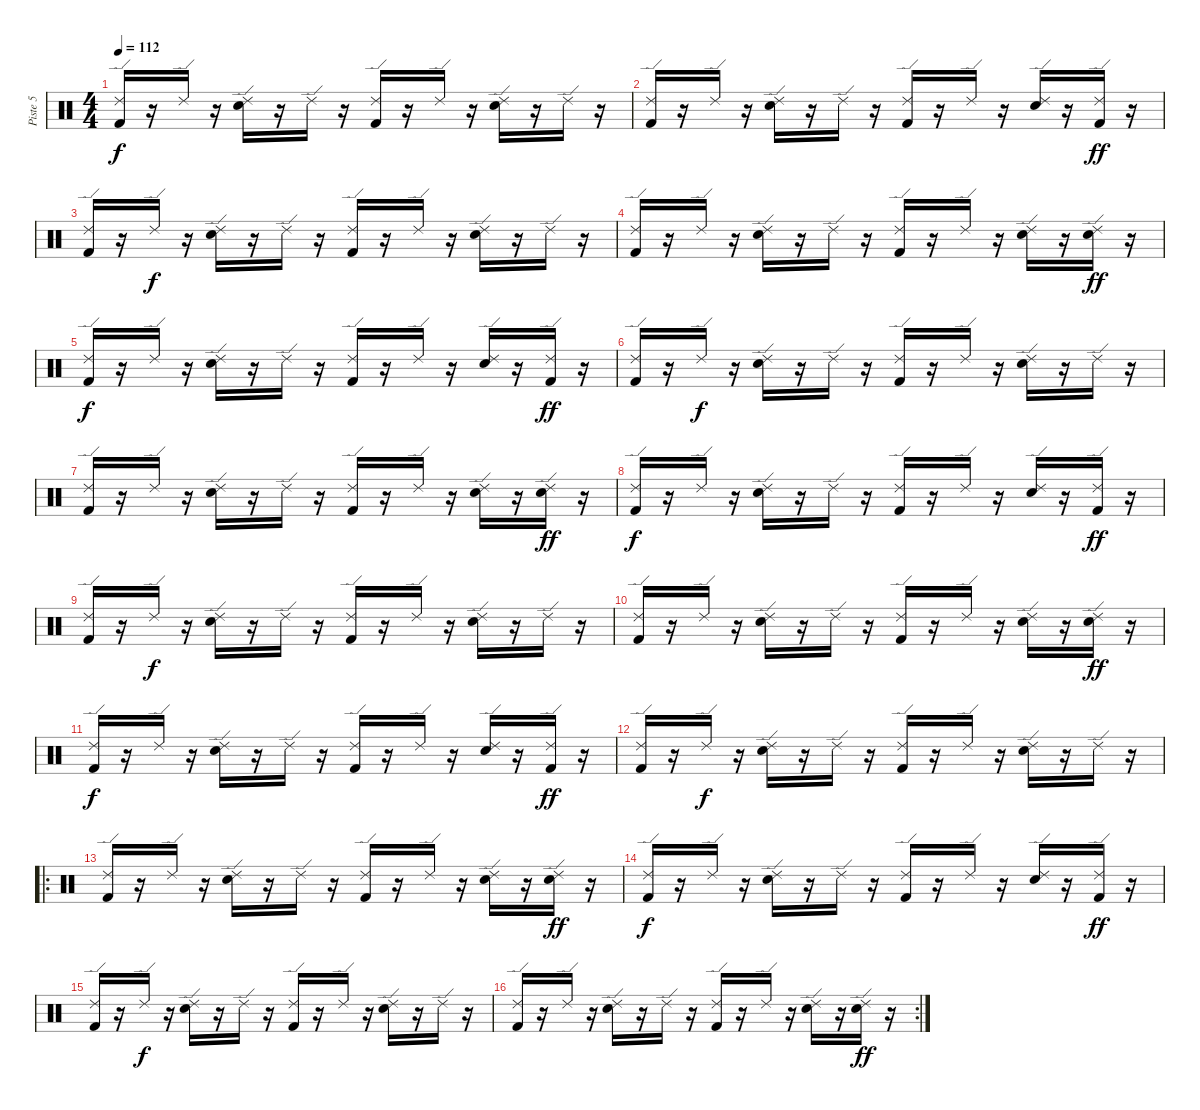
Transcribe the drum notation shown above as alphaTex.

\track ("Piste 5" "Piste 5") {instrument percussion}
\staff {score}
\articulation defaults
\ts (4 4)
\tempo 112
\clef neutral
\ks c
("Ride (edge) 2" "Kick (hit) 2").16{dy f} r.16 "Ride (edge) 2".16 r.16 ("Ride (edge) 2" "Electric Snare (hit)").16 r.16 "Ride (edge) 2".16 r.16 ("Ride (edge) 2" "Kick (hit) 2").16 r.16 "Ride (edge) 2".16 r.16 ("Ride (edge) 2" "Electric Snare (hit)").16 r.16 "Ride (edge) 2".16 r.16 |
("Ride (edge) 2" "Kick (hit) 2").16 r.16 "Ride (edge) 2".16 r.16 ("Ride (edge) 2" "Electric Snare (hit)").16 r.16 "Ride (edge) 2".16 r.16 ("Ride (edge) 2" "Kick (hit) 2").16 r.16 "Ride (edge) 2".16 r.16 ("Ride (edge) 2" "Electric Snare (hit)").16 r.16 ("Ride (edge) 2" "Kick (hit) 2").16{dy ff} r.16 |
("Ride (edge) 2" "Kick (hit) 2").16 r.16 "Ride (edge) 2".16{dy f} r.16 ("Ride (edge) 2" "Electric Snare (hit)").16 r.16 "Ride (edge) 2".16 r.16 ("Ride (edge) 2" "Kick (hit) 2").16 r.16 "Ride (edge) 2".16 r.16 ("Ride (edge) 2" "Electric Snare (hit)").16 r.16 "Ride (edge) 2".16 r.16 |
("Ride (edge) 2" "Kick (hit) 2").16 r.16 "Ride (edge) 2".16 r.16 ("Ride (edge) 2" "Electric Snare (hit)").16 r.16 "Ride (edge) 2".16 r.16 ("Ride (edge) 2" "Kick (hit) 2").16 r.16 "Ride (edge) 2".16 r.16 ("Ride (edge) 2" "Electric Snare (hit)").16 r.16 ("Ride (edge) 2" "Electric Snare (hit)").16{dy ff} r.16 |
("Kick (hit) 2" "Ride (edge) 2").16{dy f} r.16 "Ride (edge) 2".16 r.16 ("Electric Snare (hit)" "Ride (edge) 2").16 r.16 "Ride (edge) 2".16 r.16 ("Kick (hit) 2" "Ride (edge) 2").16 r.16 "Ride (edge) 2".16 r.16 ("Electric Snare (hit)" "Ride (edge) 2").16 r.16 ("Kick (hit) 2" "Ride (edge) 2").16{dy ff} r.16 |
("Kick (hit) 2" "Ride (edge) 2").16 r.16 "Ride (edge) 2".16{dy f} r.16 ("Electric Snare (hit)" "Ride (edge) 2").16 r.16 "Ride (edge) 2".16 r.16 ("Kick (hit) 2" "Ride (edge) 2").16 r.16 "Ride (edge) 2".16 r.16 ("Electric Snare (hit)" "Ride (edge) 2").16 r.16 "Ride (edge) 2".16 r.16 |
("Kick (hit) 2" "Ride (edge) 2").16 r.16 "Ride (edge) 2".16 r.16 ("Electric Snare (hit)" "Ride (edge) 2").16 r.16 "Ride (edge) 2".16 r.16 ("Kick (hit) 2" "Ride (edge) 2").16 r.16 "Ride (edge) 2".16 r.16 ("Electric Snare (hit)" "Ride (edge) 2").16 r.16 ("Electric Snare (hit)" "Ride (edge) 2").16{dy ff} r.16 |
("Kick (hit) 2" "Ride (edge) 2").16{dy f} r.16 "Ride (edge) 2".16 r.16 ("Electric Snare (hit)" "Ride (edge) 2").16 r.16 "Ride (edge) 2".16 r.16 ("Kick (hit) 2" "Ride (edge) 2").16 r.16 "Ride (edge) 2".16 r.16 ("Electric Snare (hit)" "Ride (edge) 2").16 r.16 ("Kick (hit) 2" "Ride (edge) 2").16{dy ff} r.16 |
("Kick (hit) 2" "Ride (edge) 2").16 r.16 "Ride (edge) 2".16{dy f} r.16 ("Electric Snare (hit)" "Ride (edge) 2").16 r.16 "Ride (edge) 2".16 r.16 ("Kick (hit) 2" "Ride (edge) 2").16 r.16 "Ride (edge) 2".16 r.16 ("Electric Snare (hit)" "Ride (edge) 2").16 r.16 "Ride (edge) 2".16 r.16 |
("Kick (hit) 2" "Ride (edge) 2").16 r.16 "Ride (edge) 2".16 r.16 ("Electric Snare (hit)" "Ride (edge) 2").16 r.16 "Ride (edge) 2".16 r.16 ("Kick (hit) 2" "Ride (edge) 2").16 r.16 "Ride (edge) 2".16 r.16 ("Electric Snare (hit)" "Ride (edge) 2").16 r.16 ("Electric Snare (hit)" "Ride (edge) 2").16{dy ff} r.16 |
("Ride (edge) 2" "Kick (hit) 2").16{dy f} r.16 "Ride (edge) 2".16 r.16 ("Ride (edge) 2" "Electric Snare (hit)").16 r.16 "Ride (edge) 2".16 r.16 ("Ride (edge) 2" "Kick (hit) 2").16 r.16 "Ride (edge) 2".16 r.16 ("Ride (edge) 2" "Electric Snare (hit)").16 r.16 ("Ride (edge) 2" "Kick (hit) 2").16{dy ff} r.16 |
("Ride (edge) 2" "Kick (hit) 2").16 r.16 "Ride (edge) 2".16{dy f} r.16 ("Ride (edge) 2" "Electric Snare (hit)").16 r.16 "Ride (edge) 2".16 r.16 ("Ride (edge) 2" "Kick (hit) 2").16 r.16 "Ride (edge) 2".16 r.16 ("Ride (edge) 2" "Electric Snare (hit)").16 r.16 "Ride (edge) 2".16 r.16 |
\ro
("Ride (edge) 2" "Kick (hit) 2").16 r.16 "Ride (edge) 2".16 r.16 ("Ride (edge) 2" "Electric Snare (hit)").16 r.16 "Ride (edge) 2".16 r.16 ("Ride (edge) 2" "Kick (hit) 2").16 r.16 "Ride (edge) 2".16 r.16 ("Ride (edge) 2" "Electric Snare (hit)").16 r.16 ("Ride (edge) 2" "Electric Snare (hit)").16{dy ff} r.16 |
("Kick (hit) 2" "Ride (edge) 2").16{dy f} r.16 "Ride (edge) 2".16 r.16 ("Electric Snare (hit)" "Ride (edge) 2").16 r.16 "Ride (edge) 2".16 r.16 ("Kick (hit) 2" "Ride (edge) 2").16 r.16 "Ride (edge) 2".16 r.16 ("Electric Snare (hit)" "Ride (edge) 2").16 r.16 ("Kick (hit) 2" "Ride (edge) 2").16{dy ff} r.16 |
("Kick (hit) 2" "Ride (edge) 2").16 r.16 "Ride (edge) 2".16{dy f} r.16 ("Electric Snare (hit)" "Ride (edge) 2").16 r.16 "Ride (edge) 2".16 r.16 ("Kick (hit) 2" "Ride (edge) 2").16 r.16 "Ride (edge) 2".16 r.16 ("Electric Snare (hit)" "Ride (edge) 2").16 r.16 "Ride (edge) 2".16 r.16 |
\rc 2
("Kick (hit) 2" "Ride (edge) 2").16 r.16 "Ride (edge) 2".16 r.16 ("Electric Snare (hit)" "Ride (edge) 2").16 r.16 "Ride (edge) 2".16 r.16 ("Kick (hit) 2" "Ride (edge) 2").16 r.16 "Ride (edge) 2".16 r.16 ("Electric Snare (hit)" "Ride (edge) 2").16 r.16 ("Electric Snare (hit)" "Ride (edge) 2").16{dy ff} r.16
